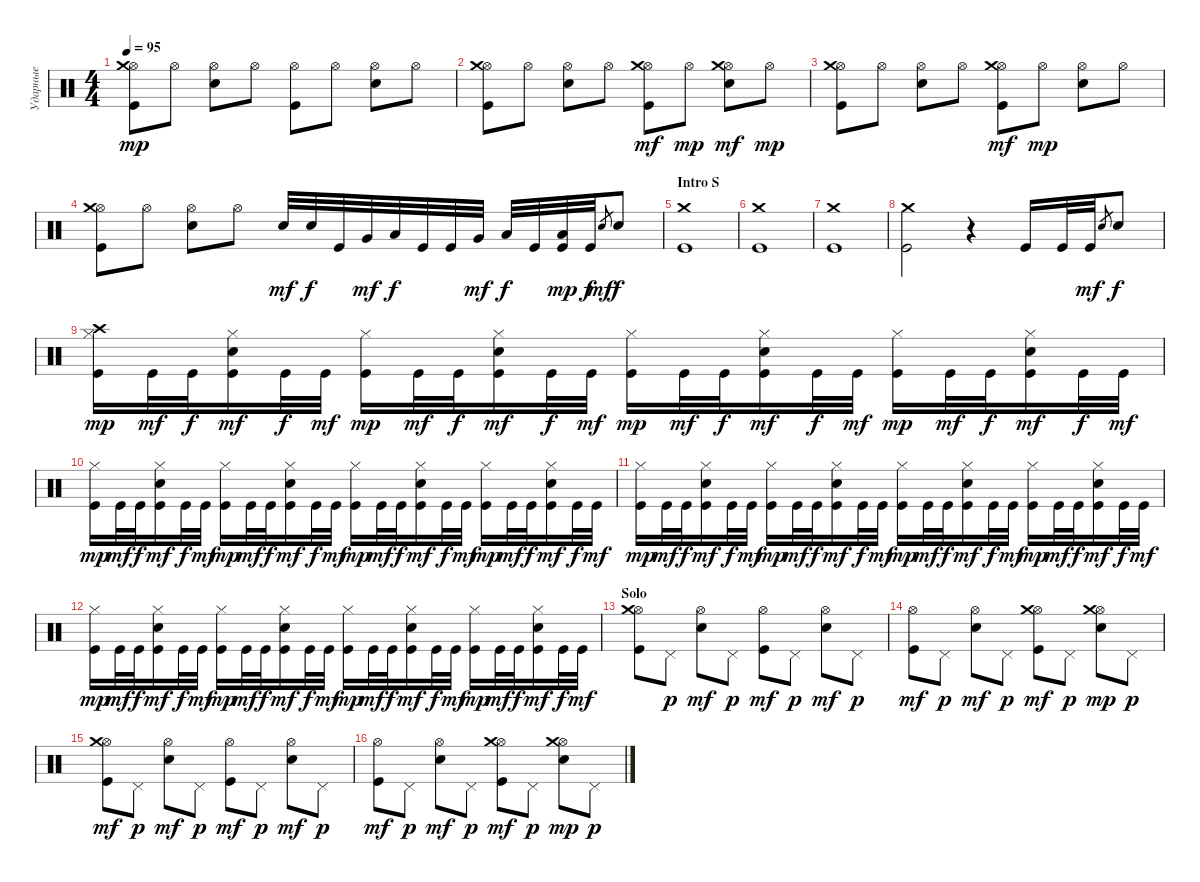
\track ("Ударные" "Ударные") {instrument percussion}
\staff {score}
\articulation defaults
\ts (4 4)
\tempo 95
\clef neutral
\ks c
("Hi-Hat (open)" "Crash medium (hit)" "Kick (hit)").8{dy mp} "Hi-Hat (open)".8 ("Hi-Hat (open)" "Snare (hit) 2").8 "Hi-Hat (open)".8 ("Hi-Hat (open)" "Kick (hit)").8 "Hi-Hat (open)".8 ("Hi-Hat (open)" "Snare (hit) 2").8 "Hi-Hat (open)".8 |
("Hi-Hat (open)" "Crash medium (hit)" "Kick (hit)").8 "Hi-Hat (open)".8 ("Hi-Hat (open)" "Snare (hit) 2").8 "Hi-Hat (open)".8 ("Hi-Hat (open)" "Crash medium (hit)" "Kick (hit)").8{dy mf} "Hi-Hat (open)".8{dy mp} ("Hi-Hat (open)" "Crash medium (hit)" "Snare (hit) 2").8{dy mf} "Hi-Hat (open)".8{dy mp} |
("Hi-Hat (open)" "Crash medium (hit)" "Kick (hit)").8 "Hi-Hat (open)".8 ("Hi-Hat (open)" "Snare (hit) 2").8 "Hi-Hat (open)".8 ("Hi-Hat (open)" "Crash medium (hit)" "Kick (hit)").8{dy mf} "Hi-Hat (open)".8{dy mp} ("Hi-Hat (open)" "Snare (hit) 2").8 "Hi-Hat (open)".8 |
("Hi-Hat (open)" "Crash medium (hit)" "Kick (hit)").8 "Hi-Hat (open)".8 ("Hi-Hat (open)" "Snare (hit) 2").8 "Hi-Hat (open)".8 "Snare (hit) 2".32{dy mf} "Snare (hit) 2".32{dy f} "Kick (hit)".32 "Very Low Tom (hit)".32{dy mf} "Low Floor Tom (hit)".32{dy f} "Kick (hit)".32 "Kick (hit)".32 "Very Low Tom (hit)".32{dy mf} "Low Floor Tom (hit)".32{dy f} "Kick (hit)".32 ("Low Floor Tom (hit)" "Kick (hit)").32{dy mp} "Kick (hit)".32{dy f} "Snare (hit) 2".8{gr dy mf} "Snare (hit) 2".8{dy f} |
\section ("" "Intro S")
("Crash medium (hit)" "Kick (hit)").1 |
("Crash medium (hit)" "Kick (hit)").1 |
("Crash medium (hit)" "Kick (hit)").1 |
("Crash medium (hit)" "Kick (hit)").2 r.4 "Kick (hit)".16 "Kick (hit)".32 "Kick (hit)".32{dy mf} "Snare (hit) 2".8{gr} "Snare (hit) 2".8{dy f} |
("Hi-Hat (closed)" "Crash high (hit)" "Kick (hit)").16{dy mp} "Kick (hit)".32{dy mf} "Kick (hit)".32{dy f} ("Hi-Hat (closed)" "Snare (hit) 2" "Kick (hit)").16{dy mf} "Kick (hit)".32{dy f} "Kick (hit)".32{dy mf} ("Hi-Hat (closed)" "Kick (hit)").16{dy mp} "Kick (hit)".32{dy mf} "Kick (hit)".32{dy f} ("Hi-Hat (closed)" "Snare (hit) 2" "Kick (hit)").16{dy mf} "Kick (hit)".32{dy f} "Kick (hit)".32{dy mf} ("Hi-Hat (closed)" "Kick (hit)").16{dy mp} "Kick (hit)".32{dy mf} "Kick (hit)".32{dy f} ("Hi-Hat (closed)" "Snare (hit) 2" "Kick (hit)").16{dy mf} "Kick (hit)".32{dy f} "Kick (hit)".32{dy mf} ("Hi-Hat (closed)" "Kick (hit)").16{dy mp} "Kick (hit)".32{dy mf} "Kick (hit)".32{dy f} ("Hi-Hat (closed)" "Snare (hit) 2" "Kick (hit)").16{dy mf} "Kick (hit)".32{dy f} "Kick (hit)".32{dy mf} |
("Hi-Hat (closed)" "Kick (hit)").16{dy mp} "Kick (hit)".32{dy mf} "Kick (hit)".32{dy f} ("Hi-Hat (closed)" "Snare (hit) 2" "Kick (hit)").16{dy mf} "Kick (hit)".32{dy f} "Kick (hit)".32{dy mf} ("Hi-Hat (closed)" "Kick (hit)").16{dy mp} "Kick (hit)".32{dy mf} "Kick (hit)".32{dy f} ("Hi-Hat (closed)" "Snare (hit) 2" "Kick (hit)").16{dy mf} "Kick (hit)".32{dy f} "Kick (hit)".32{dy mf} ("Hi-Hat (closed)" "Kick (hit)").16{dy mp} "Kick (hit)".32{dy mf} "Kick (hit)".32{dy f} ("Hi-Hat (closed)" "Snare (hit) 2" "Kick (hit)").16{dy mf} "Kick (hit)".32{dy f} "Kick (hit)".32{dy mf} ("Hi-Hat (closed)" "Kick (hit)").16{dy mp} "Kick (hit)".32{dy mf} "Kick (hit)".32{dy f} ("Hi-Hat (closed)" "Snare (hit) 2" "Kick (hit)").16{dy mf} "Kick (hit)".32{dy f} "Kick (hit)".32{dy mf} |
("Hi-Hat (closed)" "Kick (hit)").16{dy mp} "Kick (hit)".32{dy mf} "Kick (hit)".32{dy f} ("Hi-Hat (closed)" "Snare (hit) 2" "Kick (hit)").16{dy mf} "Kick (hit)".32{dy f} "Kick (hit)".32{dy mf} ("Hi-Hat (closed)" "Kick (hit)").16{dy mp} "Kick (hit)".32{dy mf} "Kick (hit)".32{dy f} ("Hi-Hat (closed)" "Snare (hit) 2" "Kick (hit)").16{dy mf} "Kick (hit)".32{dy f} "Kick (hit)".32{dy mf} ("Hi-Hat (closed)" "Kick (hit)").16{dy mp} "Kick (hit)".32{dy mf} "Kick (hit)".32{dy f} ("Hi-Hat (closed)" "Snare (hit) 2" "Kick (hit)").16{dy mf} "Kick (hit)".32{dy f} "Kick (hit)".32{dy mf} ("Hi-Hat (closed)" "Kick (hit)").16{dy mp} "Kick (hit)".32{dy mf} "Kick (hit)".32{dy f} ("Hi-Hat (closed)" "Snare (hit) 2" "Kick (hit)").16{dy mf} "Kick (hit)".32{dy f} "Kick (hit)".32{dy mf} |
("Hi-Hat (closed)" "Kick (hit)").16{dy mp} "Kick (hit)".32{dy mf} "Kick (hit)".32{dy f} ("Hi-Hat (closed)" "Snare (hit) 2" "Kick (hit)").16{dy mf} "Kick (hit)".32{dy f} "Kick (hit)".32{dy mf} ("Hi-Hat (closed)" "Kick (hit)").16{dy mp} "Kick (hit)".32{dy mf} "Kick (hit)".32{dy f} ("Hi-Hat (closed)" "Snare (hit) 2" "Kick (hit)").16{dy mf} "Kick (hit)".32{dy f} "Kick (hit)".32{dy mf} ("Hi-Hat (closed)" "Kick (hit)").16{dy mp} "Kick (hit)".32{dy mf} "Kick (hit)".32{dy f} ("Hi-Hat (closed)" "Snare (hit) 2" "Kick (hit)").16{dy mf} "Kick (hit)".32{dy f} "Kick (hit)".32{dy mf} ("Hi-Hat (closed)" "Kick (hit)").16{dy mp} "Kick (hit)".32{dy mf} "Kick (hit)".32{dy f} ("Hi-Hat (closed)" "Snare (hit) 2" "Kick (hit)").16{dy mf} "Kick (hit)".32{dy f} "Kick (hit)".32{dy mf} |
\section ("" "Solo")
("Hi-Hat (open)" "Crash medium (hit)" "Kick (hit)").8 "Pedal Hi-Hat (hit)".8{dy p} ("Hi-Hat (open)" "Snare (hit) 2").8{dy mf} "Pedal Hi-Hat (hit)".8{dy p} ("Hi-Hat (open)" "Kick (hit)").8{dy mf} "Pedal Hi-Hat (hit)".8{dy p} ("Hi-Hat (open)" "Snare (hit) 2").8{dy mf} "Pedal Hi-Hat (hit)".8{dy p} |
("Hi-Hat (open)" "Kick (hit)").8{dy mf} "Pedal Hi-Hat (hit)".8{dy p} ("Hi-Hat (open)" "Snare (hit) 2").8{dy mf} "Pedal Hi-Hat (hit)".8{dy p} ("Hi-Hat (open)" "Crash medium (hit)" "Kick (hit)").8{dy mf} "Pedal Hi-Hat (hit)".8{dy p} ("Hi-Hat (open)" "Crash medium (hit)" "Snare (hit) 2").8{dy mp} "Pedal Hi-Hat (hit)".8{dy p} |
("Hi-Hat (open)" "Crash medium (hit)" "Kick (hit)").8{dy mf} "Pedal Hi-Hat (hit)".8{dy p} ("Hi-Hat (open)" "Snare (hit) 2").8{dy mf} "Pedal Hi-Hat (hit)".8{dy p} ("Hi-Hat (open)" "Kick (hit)").8{dy mf} "Pedal Hi-Hat (hit)".8{dy p} ("Hi-Hat (open)" "Snare (hit) 2").8{dy mf} "Pedal Hi-Hat (hit)".8{dy p} |
("Hi-Hat (open)" "Kick (hit)").8{dy mf} "Pedal Hi-Hat (hit)".8{dy p} ("Hi-Hat (open)" "Snare (hit) 2").8{dy mf} "Pedal Hi-Hat (hit)".8{dy p} ("Hi-Hat (open)" "Crash medium (hit)" "Kick (hit)").8{dy mf} "Pedal Hi-Hat (hit)".8{dy p} ("Hi-Hat (open)" "Crash medium (hit)" "Snare (hit) 2").8{dy mp} "Pedal Hi-Hat (hit)".8{dy p}
